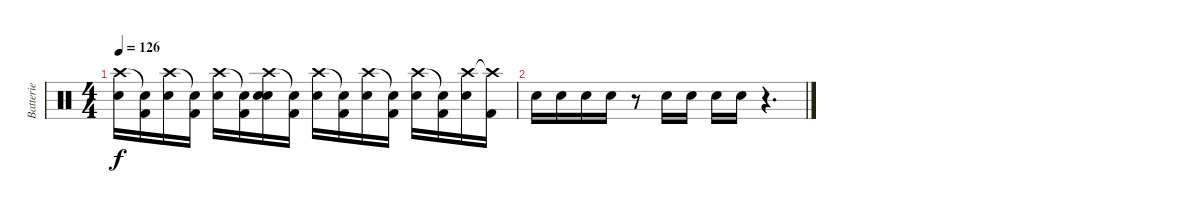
\track ("Batterie" "Batterie") {instrument percussion}
\staff {score}
\articulation defaults
\ts (4 4)
\tempo 126
\clef neutral
\ks c
("Crash high (hit)" "Electric Snare (hit)").16{dy f} ("Snare (hit)"{t} "Kick (hit) 2").16 ("Crash high (hit)" "Electric Snare (hit)").16 ("Snare (hit)"{t} "Kick (hit) 2").16 ("Crash high (hit)" "Electric Snare (hit)").16 ("Snare (hit)"{t} "Kick (hit) 2").16 ("Crash high (hit)" "Electric Snare (hit)" "Electric Snare (hit)").16 ("Snare (hit)"{t} "Kick (hit) 2").16 ("Crash high (hit)" "Electric Snare (hit)").16 ("Snare (hit)"{t} "Kick (hit) 2").16 ("Crash high (hit)" "Electric Snare (hit)").16 ("Snare (hit)"{t} "Kick (hit) 2").16 ("Crash high (hit)" "Electric Snare (hit)").16 ("Snare (hit)"{t} "Kick (hit) 2").16 ("Crash high (hit)" "Electric Snare (hit)").16 ("Crash high (hit)"{t} "Kick (hit) 2").16 |
"Electric Snare (hit)".16 "Electric Snare (hit)".16 "Electric Snare (hit)".16 "Electric Snare (hit)".16 r.8 "Electric Snare (hit)".16 "Electric Snare (hit)".16 "Electric Snare (hit)".16 "Electric Snare (hit)".16 r.4{d}
